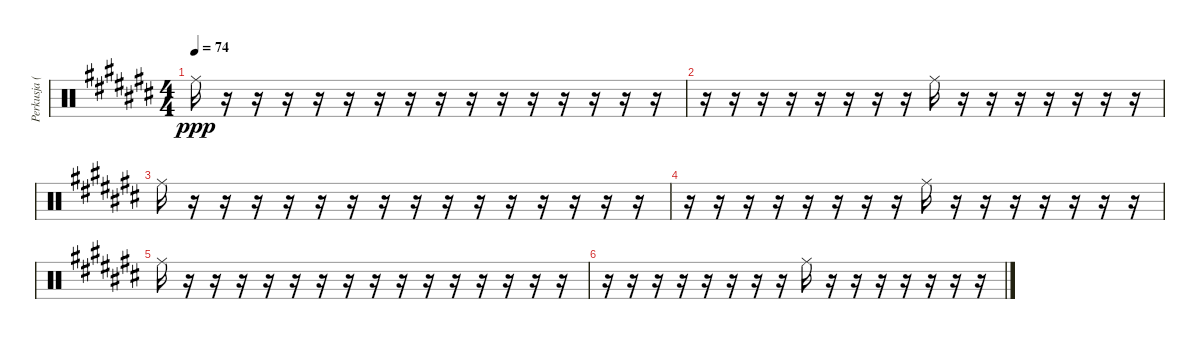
\track ("Perkusja (by FleX)" "Perkusja (") {instrument percussion}
\staff {score}
\articulation defaults
\ts (4 4)
\tempo 74
\clef neutral
\ks a#minor "Ride (middle)".16{dy ppp}
r.16 r.16 r.16 r.16 r.16 r.16 r.16 r.16 r.16 r.16 r.16 r.16 r.16 r.16 r.16 |
r.16 r.16 r.16 r.16 r.16 r.16 r.16 r.16 "Ride (middle)".16 r.16 r.16 r.16 r.16 r.16 r.16 r.16 |
"Ride (middle)".16 r.16 r.16 r.16 r.16 r.16 r.16 r.16 r.16 r.16 r.16 r.16 r.16 r.16 r.16 r.16 |
r.16 r.16 r.16 r.16 r.16 r.16 r.16 r.16 "Ride (middle)".16 r.16 r.16 r.16 r.16 r.16 r.16 r.16 |
"Ride (middle)".16 r.16 r.16 r.16 r.16 r.16 r.16 r.16 r.16 r.16 r.16 r.16 r.16 r.16 r.16 r.16 |
r.16 r.16 r.16 r.16 r.16 r.16 r.16 r.16 "Ride (middle)".16 r.16 r.16 r.16 r.16 r.16 r.16 r.16
